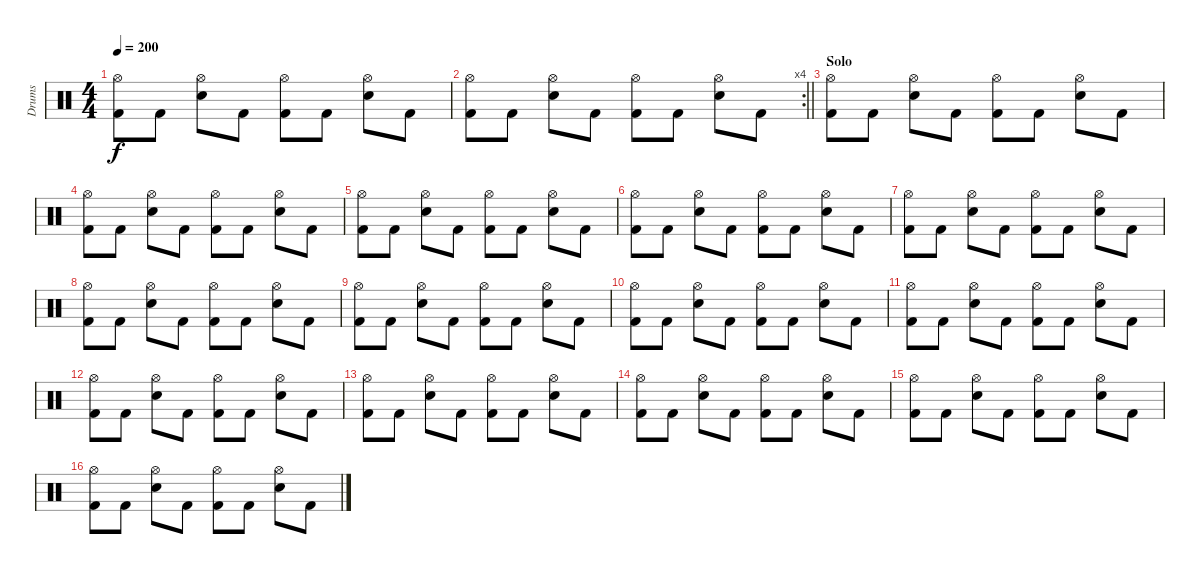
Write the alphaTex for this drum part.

\track ("Drums" "Drums") {instrument percussion}
\staff {score}
\articulation defaults
\ts (4 4)
\tempo 200
\clef neutral
\ks c
("Kick (hit) 2" "Hi-Hat (open)").8{dy f} "Kick (hit) 2".8 ("Snare (hit) 2" "Hi-Hat (open)").8 "Kick (hit) 2".8 ("Kick (hit) 2" "Hi-Hat (open)").8 "Kick (hit) 2".8 ("Snare (hit) 2" "Hi-Hat (open)").8 "Kick (hit) 2".8 |
\rc 4
\barLineRight lightlight
("Kick (hit) 2" "Hi-Hat (open)").8 "Kick (hit) 2".8 ("Snare (hit) 2" "Hi-Hat (open)").8 "Kick (hit) 2".8 ("Kick (hit) 2" "Hi-Hat (open)").8 "Kick (hit) 2".8 ("Snare (hit) 2" "Hi-Hat (open)").8 "Kick (hit) 2".8 |
\section ("" "Solo")
("Kick (hit) 2" "Hi-Hat (open)").8 "Kick (hit) 2".8 ("Snare (hit) 2" "Hi-Hat (open)").8 "Kick (hit) 2".8 ("Kick (hit) 2" "Hi-Hat (open)").8 "Kick (hit) 2".8 ("Snare (hit) 2" "Hi-Hat (open)").8 "Kick (hit) 2".8 |
("Kick (hit) 2" "Hi-Hat (open)").8 "Kick (hit) 2".8 ("Snare (hit) 2" "Hi-Hat (open)").8 "Kick (hit) 2".8 ("Kick (hit) 2" "Hi-Hat (open)").8 "Kick (hit) 2".8 ("Snare (hit) 2" "Hi-Hat (open)").8 "Kick (hit) 2".8 |
("Kick (hit) 2" "Hi-Hat (open)").8 "Kick (hit) 2".8 ("Snare (hit) 2" "Hi-Hat (open)").8 "Kick (hit) 2".8 ("Kick (hit) 2" "Hi-Hat (open)").8 "Kick (hit) 2".8 ("Snare (hit) 2" "Hi-Hat (open)").8 "Kick (hit) 2".8 |
("Kick (hit) 2" "Hi-Hat (open)").8 "Kick (hit) 2".8 ("Snare (hit) 2" "Hi-Hat (open)").8 "Kick (hit) 2".8 ("Kick (hit) 2" "Hi-Hat (open)").8 "Kick (hit) 2".8 ("Snare (hit) 2" "Hi-Hat (open)").8 "Kick (hit) 2".8 |
("Kick (hit) 2" "Hi-Hat (open)").8 "Kick (hit) 2".8 ("Snare (hit) 2" "Hi-Hat (open)").8 "Kick (hit) 2".8 ("Kick (hit) 2" "Hi-Hat (open)").8 "Kick (hit) 2".8 ("Snare (hit) 2" "Hi-Hat (open)").8 "Kick (hit) 2".8 |
("Kick (hit) 2" "Hi-Hat (open)").8 "Kick (hit) 2".8 ("Snare (hit) 2" "Hi-Hat (open)").8 "Kick (hit) 2".8 ("Kick (hit) 2" "Hi-Hat (open)").8 "Kick (hit) 2".8 ("Snare (hit) 2" "Hi-Hat (open)").8 "Kick (hit) 2".8 |
("Kick (hit) 2" "Hi-Hat (open)").8 "Kick (hit) 2".8 ("Snare (hit) 2" "Hi-Hat (open)").8 "Kick (hit) 2".8 ("Kick (hit) 2" "Hi-Hat (open)").8 "Kick (hit) 2".8 ("Snare (hit) 2" "Hi-Hat (open)").8 "Kick (hit) 2".8 |
("Kick (hit) 2" "Hi-Hat (open)").8 "Kick (hit) 2".8 ("Snare (hit) 2" "Hi-Hat (open)").8 "Kick (hit) 2".8 ("Kick (hit) 2" "Hi-Hat (open)").8 "Kick (hit) 2".8 ("Snare (hit) 2" "Hi-Hat (open)").8 "Kick (hit) 2".8 |
("Kick (hit) 2" "Hi-Hat (open)").8 "Kick (hit) 2".8 ("Snare (hit) 2" "Hi-Hat (open)").8 "Kick (hit) 2".8 ("Kick (hit) 2" "Hi-Hat (open)").8 "Kick (hit) 2".8 ("Snare (hit) 2" "Hi-Hat (open)").8 "Kick (hit) 2".8 |
("Kick (hit) 2" "Hi-Hat (open)").8 "Kick (hit) 2".8 ("Snare (hit) 2" "Hi-Hat (open)").8 "Kick (hit) 2".8 ("Kick (hit) 2" "Hi-Hat (open)").8 "Kick (hit) 2".8 ("Snare (hit) 2" "Hi-Hat (open)").8 "Kick (hit) 2".8 |
("Kick (hit) 2" "Hi-Hat (open)").8 "Kick (hit) 2".8 ("Snare (hit) 2" "Hi-Hat (open)").8 "Kick (hit) 2".8 ("Kick (hit) 2" "Hi-Hat (open)").8 "Kick (hit) 2".8 ("Snare (hit) 2" "Hi-Hat (open)").8 "Kick (hit) 2".8 |
("Kick (hit) 2" "Hi-Hat (open)").8 "Kick (hit) 2".8 ("Snare (hit) 2" "Hi-Hat (open)").8 "Kick (hit) 2".8 ("Kick (hit) 2" "Hi-Hat (open)").8 "Kick (hit) 2".8 ("Snare (hit) 2" "Hi-Hat (open)").8 "Kick (hit) 2".8 |
("Kick (hit) 2" "Hi-Hat (open)").8 "Kick (hit) 2".8 ("Snare (hit) 2" "Hi-Hat (open)").8 "Kick (hit) 2".8 ("Kick (hit) 2" "Hi-Hat (open)").8 "Kick (hit) 2".8 ("Snare (hit) 2" "Hi-Hat (open)").8 "Kick (hit) 2".8 |
("Kick (hit) 2" "Hi-Hat (open)").8 "Kick (hit) 2".8 ("Snare (hit) 2" "Hi-Hat (open)").8 "Kick (hit) 2".8 ("Kick (hit) 2" "Hi-Hat (open)").8 "Kick (hit) 2".8 ("Snare (hit) 2" "Hi-Hat (open)").8 "Kick (hit) 2".8
